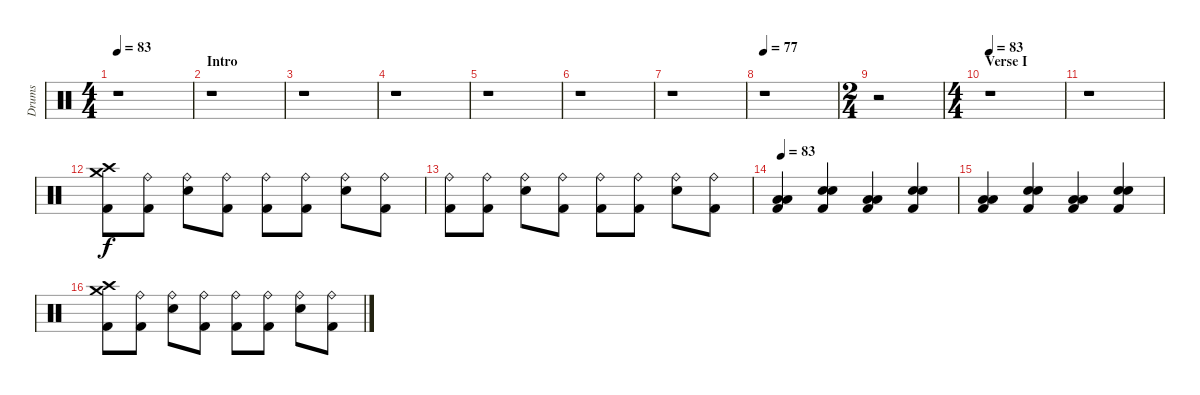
\track ("Drums" "Drums") {instrument percussion}
\staff {score}
\articulation defaults
\ts (4 4)
\tempo 83
\clef neutral
\ks c
r.1{dy f} |
\section ("" "Intro")
r.1 |
r.1 |
r.1 |
r.1 |
r.1 |
r.1 |
\tempo 77
r.1 |
\ts (2 4)
r.2 |
\ts (4 4)
\section ("" "Verse I")
\tempo 83
r.1 |
r.1 |
("Crash high (hit)" "Crash medium (hit)" "Kick (hit) 2").8 ("Ride (bell)" "Kick (hit) 2").8 ("Ride (bell)" "Electric Snare (hit)").8 ("Ride (bell)" "Kick (hit) 2").8 ("Ride (bell)" "Kick (hit) 2").8 ("Ride (bell)" "Kick (hit) 2").8 ("Ride (bell)" "Electric Snare (hit)").8 ("Ride (bell)" "Kick (hit) 2").8 |
("Ride (bell)" "Kick (hit) 2").8 ("Ride (bell)" "Kick (hit) 2").8 ("Ride (bell)" "Electric Snare (hit)").8 ("Ride (bell)" "Kick (hit) 2").8 ("Ride (bell)" "Kick (hit) 2").8 ("Ride (bell)" "Kick (hit) 2").8 ("Ride (bell)" "Electric Snare (hit)").8 ("Ride (bell)" "Kick (hit) 2").8 |
\tempo 83
("Low Floor Tom (hit)" "Low Floor Tom (hit)" "Kick (hit) 2").4 ("Electric Snare (hit)" "Electric Snare (hit)" "Kick (hit) 2").4 ("Low Floor Tom (hit)" "Low Floor Tom (hit)" "Kick (hit) 2").4 ("Electric Snare (hit)" "Electric Snare (hit)" "Kick (hit) 2").4 |
("Low Floor Tom (hit)" "Low Floor Tom (hit)" "Kick (hit) 2").4 ("Electric Snare (hit)" "Electric Snare (hit)" "Kick (hit) 2").4 ("Low Floor Tom (hit)" "Low Floor Tom (hit)" "Kick (hit) 2").4 ("Electric Snare (hit)" "Electric Snare (hit)" "Kick (hit) 2").4 |
("Crash high (hit)" "Crash medium (hit)" "Kick (hit) 2").8 ("Ride (bell)" "Kick (hit) 2").8 ("Ride (bell)" "Electric Snare (hit)").8 ("Ride (bell)" "Kick (hit) 2").8 ("Ride (bell)" "Kick (hit) 2").8 ("Ride (bell)" "Kick (hit) 2").8 ("Ride (bell)" "Electric Snare (hit)").8 ("Ride (bell)" "Kick (hit) 2").8
